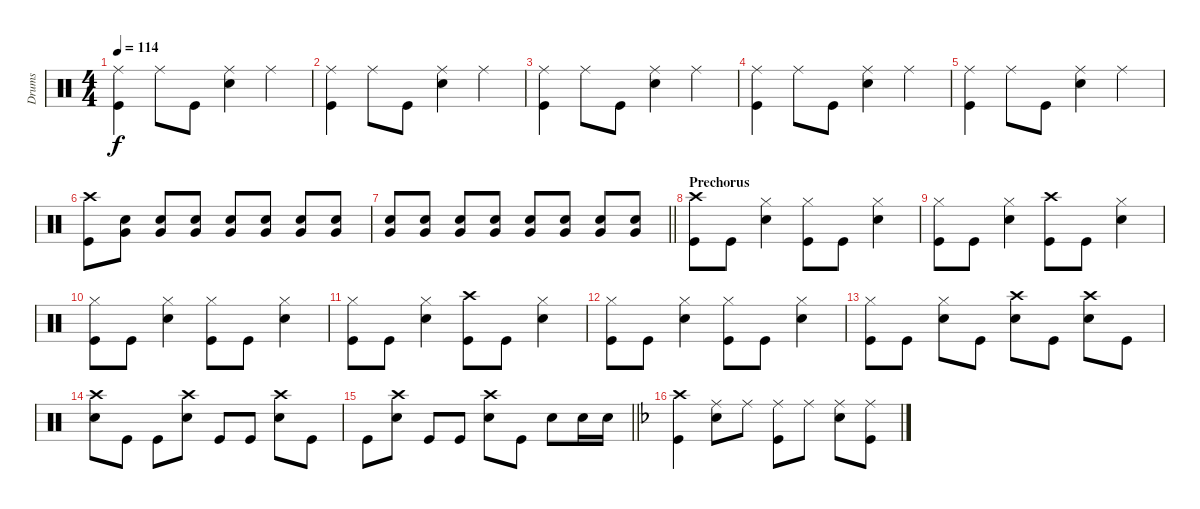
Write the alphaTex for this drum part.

\track ("Drums" "Drums") {instrument percussion}
\staff {score}
\articulation defaults
\ts (4 4)
\tempo 114
\clef neutral
\ks c
("Ride (middle)" "Kick (hit)").4{dy f} "Ride (middle)".8 "Kick (hit)".8 ("Ride (middle)" "Snare (hit) 2").4 "Ride (middle)".4 |
("Ride (middle)" "Kick (hit)").4 "Ride (middle)".8 "Kick (hit)".8 ("Ride (middle)" "Snare (hit) 2").4 "Ride (middle)".4 |
("Ride (middle)" "Kick (hit)").4 "Ride (middle)".8 "Kick (hit)".8 ("Ride (middle)" "Snare (hit) 2").4 "Ride (middle)".4 |
("Ride (middle)" "Kick (hit)").4 "Ride (middle)".8 "Kick (hit)".8 ("Ride (middle)" "Snare (hit) 2").4 "Ride (middle)".4 |
("Ride (middle)" "Kick (hit)").4 "Ride (middle)".8 "Kick (hit)".8 ("Ride (middle)" "Snare (hit) 2").4 "Ride (middle)".4 |
("Crash high (hit)" "Kick (hit)").8 ("Snare (hit) 2" "Very Low Tom (hit)").8 ("Snare (hit) 2" "Very Low Tom (hit)").8 ("Snare (hit) 2" "Very Low Tom (hit)").8 ("Snare (hit) 2" "Very Low Tom (hit)").8 ("Snare (hit) 2" "Very Low Tom (hit)").8 ("Snare (hit) 2" "Very Low Tom (hit)").8 ("Snare (hit) 2" "Very Low Tom (hit)").8 |
\barLineRight lightlight
("Snare (hit) 2" "Very Low Tom (hit)").8 ("Snare (hit) 2" "Very Low Tom (hit)").8 ("Snare (hit) 2" "Very Low Tom (hit)").8 ("Snare (hit) 2" "Very Low Tom (hit)").8 ("Snare (hit) 2" "Very Low Tom (hit)").8 ("Snare (hit) 2" "Very Low Tom (hit)").8 ("Snare (hit) 2" "Very Low Tom (hit)").8 ("Snare (hit) 2" "Very Low Tom (hit)").8 |
\section ("" "Prechorus")
("Crash high (hit)" "Kick (hit)").8 "Kick (hit)".8 ("Hi-Hat (closed)" "Snare (hit) 2").4 ("Hi-Hat (closed)" "Kick (hit)").8 "Kick (hit)".8 ("Hi-Hat (closed)" "Snare (hit) 2").4 |
("Hi-Hat (closed)" "Kick (hit)").8 "Kick (hit)".8 ("Hi-Hat (closed)" "Snare (hit) 2").4 ("Crash high (hit)" "Kick (hit)").8 "Kick (hit)".8 ("Hi-Hat (closed)" "Snare (hit) 2").4 |
("Hi-Hat (closed)" "Kick (hit)").8 "Kick (hit)".8 ("Hi-Hat (closed)" "Snare (hit) 2").4 ("Hi-Hat (closed)" "Kick (hit)").8 "Kick (hit)".8 ("Hi-Hat (closed)" "Snare (hit) 2").4 |
("Hi-Hat (closed)" "Kick (hit)").8 "Kick (hit)".8 ("Hi-Hat (closed)" "Snare (hit) 2").4 ("Crash high (hit)" "Kick (hit)").8 "Kick (hit)".8 ("Hi-Hat (closed)" "Snare (hit) 2").4 |
("Hi-Hat (closed)" "Kick (hit)").8 "Kick (hit)".8 ("Hi-Hat (closed)" "Snare (hit) 2").4 ("Hi-Hat (closed)" "Kick (hit)").8 "Kick (hit)".8 ("Hi-Hat (closed)" "Snare (hit) 2").4 |
("Hi-Hat (closed)" "Kick (hit)").8 "Kick (hit)".8 ("Hi-Hat (closed)" "Snare (hit) 2").8 "Kick (hit)".8 ("Crash high (hit)" "Snare (hit) 2").8 "Kick (hit)".8 ("Crash high (hit)" "Snare (hit) 2").8 "Kick (hit)".8 |
("Crash high (hit)" "Snare (hit) 2").8 "Kick (hit)".8 "Kick (hit)".8 ("Crash high (hit)" "Snare (hit) 2").8 "Kick (hit)".8 "Kick (hit)".8 ("Crash high (hit)" "Snare (hit) 2").8 "Kick (hit)".8 |
\barLineRight lightlight "Kick (hit)".8
("Crash high (hit)" "Snare (hit) 2").8 "Kick (hit)".8 "Kick (hit)".8 ("Crash high (hit)" "Snare (hit) 2").8 "Kick (hit)".8 "Snare (hit) 2".8 "Snare (hit) 2".16 "Snare (hit) 2".16 |
\ks dminor
("Crash high (hit)" "Kick (hit)").4 ("Ride (middle)" "Snare (hit) 2").8 "Ride (middle)".8 ("Ride (middle)" "Kick (hit)").8 "Ride (middle)".8 ("Ride (middle)" "Snare (hit) 2").8 ("Ride (middle)" "Kick (hit)").8
